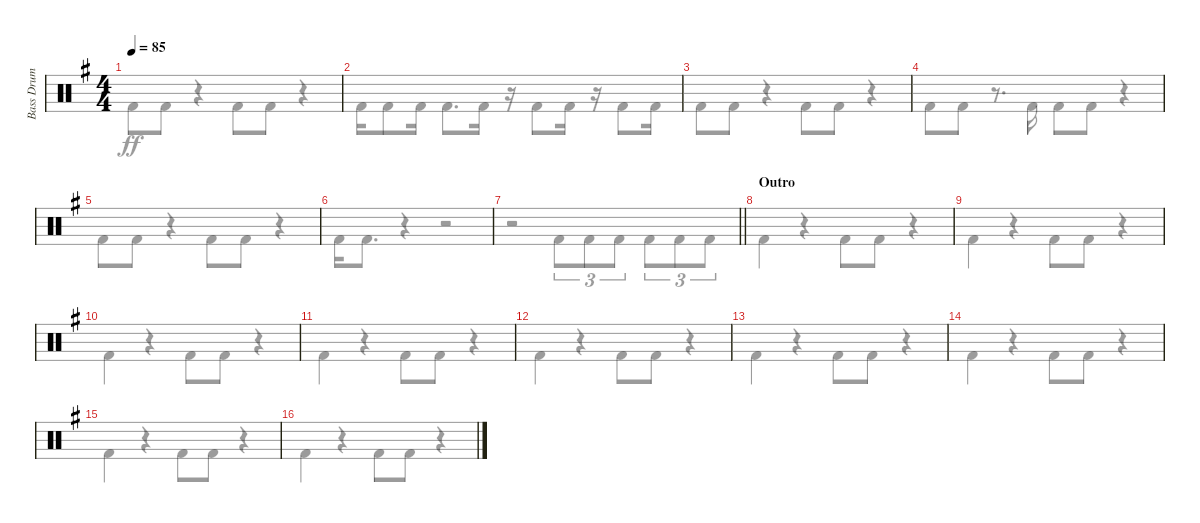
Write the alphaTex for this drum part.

\track ("Bass Drum" "Bass Drum") {instrument percussion}
\staff {score}
\articulation defaults
\voice
\ts (4 4)
\tempo 85
\clef neutral
\ks g
|
|
|
|
|
|
\barLineRight lightlight
|
\section ("" "Outro")
|
|
|
|
|
|
|
|
\voice
\clef neutral
\ks g "Kick (hit) 2".8{dy ff} "Kick (hit) 2".8
r.4 "Kick (hit) 2".8 "Kick (hit) 2".8 r.4 |
"Kick (hit) 2".16 "Kick (hit) 2".8 "Kick (hit) 2".16 "Kick (hit) 2".8{d} "Kick (hit) 2".16 r.16 "Kick (hit) 2".8 "Kick (hit) 2".16 r.16 "Kick (hit) 2".8 "Kick (hit) 2".16 |
"Kick (hit) 2".8 "Kick (hit) 2".8 r.4 "Kick (hit) 2".8 "Kick (hit) 2".8 r.4 |
"Kick (hit) 2".8 "Kick (hit) 2".8 r.8{d} "Kick (hit) 2".16 "Kick (hit) 2".8 "Kick (hit) 2".8 r.4 |
"Kick (hit) 2".8 "Kick (hit) 2".8 r.4 "Kick (hit) 2".8 "Kick (hit) 2".8 r.4 |
"Kick (hit) 2".16 "Kick (hit) 2".8{d} r.4 r.2 |
\barLineRight lightlight
r.2 "Kick (hit) 2".8{tu (3 2)} "Kick (hit) 2".8{tu (3 2)} "Kick (hit) 2".8{tu (3 2)} "Kick (hit) 2".8{tu (3 2)} "Kick (hit) 2".8{tu (3 2)} "Kick (hit) 2".8{tu (3 2)} |
"Kick (hit) 2".4 r.4 "Kick (hit) 2".8 "Kick (hit) 2".8 r.4 |
"Kick (hit) 2".4 r.4 "Kick (hit) 2".8 "Kick (hit) 2".8 r.4 |
"Kick (hit) 2".4 r.4 "Kick (hit) 2".8 "Kick (hit) 2".8 r.4 |
"Kick (hit) 2".4 r.4 "Kick (hit) 2".8 "Kick (hit) 2".8 r.4 |
"Kick (hit) 2".4 r.4 "Kick (hit) 2".8 "Kick (hit) 2".8 r.4 |
"Kick (hit) 2".4 r.4 "Kick (hit) 2".8 "Kick (hit) 2".8 r.4 |
"Kick (hit) 2".4 r.4 "Kick (hit) 2".8 "Kick (hit) 2".8 r.4 |
"Kick (hit) 2".4 r.4 "Kick (hit) 2".8 "Kick (hit) 2".8 r.4 |
"Kick (hit) 2".4 r.4 "Kick (hit) 2".8 "Kick (hit) 2".8 r.4
